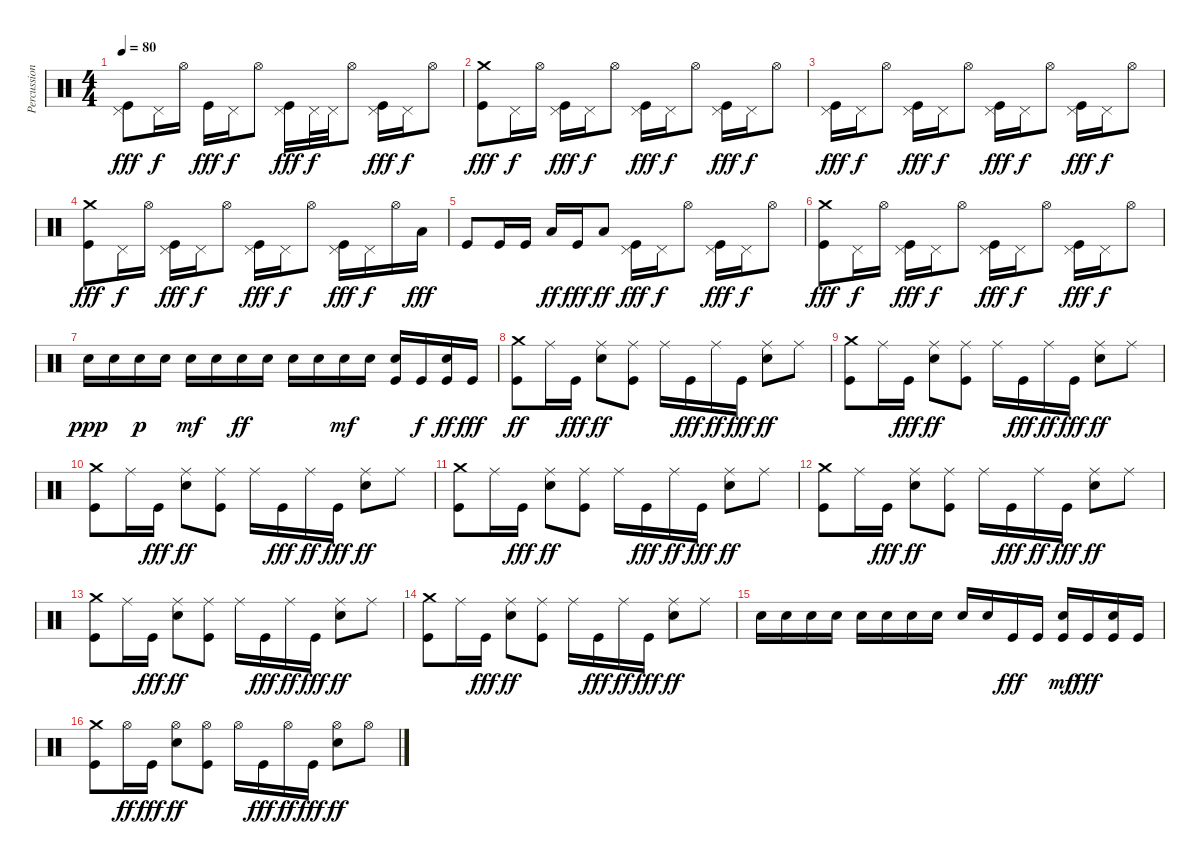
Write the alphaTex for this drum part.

\track ("Percussion" "Percussion") {instrument percussion}
\staff {score}
\articulation defaults
\ts (4 4)
\tempo 80
\clef neutral
\ks c
("Kick (hit)" "Pedal Hi-Hat (hit)").8{dy fff} "Pedal Hi-Hat (hit)".16{dy f} "Hi-Hat (open)".16 "Kick (hit)".16{dy fff} "Pedal Hi-Hat (hit)".16{dy f} "Hi-Hat (open)".8 ("Kick (hit)" "Pedal Hi-Hat (hit)").16{dy fff} "Pedal Hi-Hat (hit)".32{dy f} "Pedal Hi-Hat (hit)".32 "Hi-Hat (open)".8 ("Kick (hit)" "Pedal Hi-Hat (hit)").16{dy fff} "Pedal Hi-Hat (hit)".16{dy f} "Hi-Hat (open)".8 |
("Kick (hit)" "Crash medium (hit)").8{dy fff} "Pedal Hi-Hat (hit)".16{dy f} "Hi-Hat (open)".16 ("Kick (hit)" "Pedal Hi-Hat (hit)").16{dy fff} "Pedal Hi-Hat (hit)".16{dy f} "Hi-Hat (open)".8 ("Kick (hit)" "Pedal Hi-Hat (hit)").16{dy fff} "Pedal Hi-Hat (hit)".16{dy f} "Hi-Hat (open)".8 ("Kick (hit)" "Pedal Hi-Hat (hit)").16{dy fff} "Pedal Hi-Hat (hit)".16{dy f} "Hi-Hat (open)".8 |
("Kick (hit)" "Pedal Hi-Hat (hit)").16{dy fff} "Pedal Hi-Hat (hit)".16{dy f} "Hi-Hat (open)".8 ("Kick (hit)" "Pedal Hi-Hat (hit)").16{dy fff} "Pedal Hi-Hat (hit)".16{dy f} "Hi-Hat (open)".8 ("Kick (hit)" "Pedal Hi-Hat (hit)").16{dy fff} "Pedal Hi-Hat (hit)".16{dy f} "Hi-Hat (open)".8 ("Kick (hit)" "Pedal Hi-Hat (hit)").16{dy fff} "Pedal Hi-Hat (hit)".16{dy f} "Hi-Hat (open)".8 |
("Kick (hit)" "Crash medium (hit)").8{dy fff} "Pedal Hi-Hat (hit)".16{dy f} "Hi-Hat (open)".16 ("Kick (hit)" "Pedal Hi-Hat (hit)").16{dy fff} "Pedal Hi-Hat (hit)".16{dy f} "Hi-Hat (open)".8 ("Kick (hit)" "Pedal Hi-Hat (hit)").16{dy fff} "Pedal Hi-Hat (hit)".16{dy f} "Hi-Hat (open)".8 ("Kick (hit)" "Pedal Hi-Hat (hit)").16{dy fff} "Pedal Hi-Hat (hit)".16{dy f} "Hi-Hat (open)".16 "Low Tom (hit)".16{dy fff} |
"Kick (hit)".8 "Kick (hit)".16 "Kick (hit)".16 "Low Tom (hit)".16{dy ff} "Kick (hit)".16{dy fff} "Low Tom (hit)".8{dy ff} ("Kick (hit)" "Pedal Hi-Hat (hit)").16{dy fff} "Pedal Hi-Hat (hit)".16{dy f} "Hi-Hat (open)".8 ("Kick (hit)" "Pedal Hi-Hat (hit)").16{dy fff} "Pedal Hi-Hat (hit)".16{dy f} "Hi-Hat (open)".8 |
("Kick (hit)" "Crash medium (hit)").8{dy fff} "Pedal Hi-Hat (hit)".16{dy f} "Hi-Hat (open)".16 ("Kick (hit)" "Pedal Hi-Hat (hit)").16{dy fff} "Pedal Hi-Hat (hit)".16{dy f} "Hi-Hat (open)".8 ("Kick (hit)" "Pedal Hi-Hat (hit)").16{dy fff} "Pedal Hi-Hat (hit)".16{dy f} "Hi-Hat (open)".8 ("Kick (hit)" "Pedal Hi-Hat (hit)").16{dy fff} "Pedal Hi-Hat (hit)".16{dy f} "Hi-Hat (open)".8 |
"Snare (hit) 2".16{dy ppp} "Snare (hit) 2".16 "Snare (hit) 2".16{dy p} "Snare (hit) 2".16 "Snare (hit) 2".16{dy mf} "Snare (hit) 2".16 "Snare (hit) 2".16{dy ff} "Snare (hit) 2".16 "Snare (hit) 2".16 "Snare (hit) 2".16 "Snare (hit) 2".16{dy mf} "Snare (hit) 2".16 ("Kick (hit)" "Snare (hit) 2").16 "Kick (hit)".16{dy f} ("Kick (hit)" "Snare (hit) 2").16{dy ff} "Kick (hit)".16{dy fff} |
("Kick (hit)" "Crash medium (hit)").8{dy ff} "Ride (middle)".16 "Kick (hit)".16{dy fff} ("Snare (hit) 2" "Ride (middle)").8{dy ff} ("Kick (hit)" "Ride (middle)").8 "Ride (middle)".16 "Kick (hit)".16{dy fff} "Ride (middle)".16{dy ff} "Kick (hit)".16{dy fff} ("Snare (hit) 2" "Ride (middle)").8{dy ff} "Ride (middle)".8 |
("Kick (hit)" "Crash medium (hit)").8 "Ride (middle)".16 "Kick (hit)".16{dy fff} ("Snare (hit) 2" "Ride (middle)").8{dy ff} ("Kick (hit)" "Ride (middle)").8 "Ride (middle)".16 "Kick (hit)".16{dy fff} "Ride (middle)".16{dy ff} "Kick (hit)".16{dy fff} ("Snare (hit) 2" "Ride (middle)").8{dy ff} "Ride (middle)".8 |
("Kick (hit)" "Crash medium (hit)").8 "Ride (middle)".16 "Kick (hit)".16{dy fff} ("Snare (hit) 2" "Ride (middle)").8{dy ff} ("Kick (hit)" "Ride (middle)").8 "Ride (middle)".16 "Kick (hit)".16{dy fff} "Ride (middle)".16{dy ff} "Kick (hit)".16{dy fff} ("Snare (hit) 2" "Ride (middle)").8{dy ff} "Ride (middle)".8 |
("Kick (hit)" "Crash medium (hit)").8 "Ride (middle)".16 "Kick (hit)".16{dy fff} ("Snare (hit) 2" "Ride (middle)").8{dy ff} ("Kick (hit)" "Ride (middle)").8 "Ride (middle)".16 "Kick (hit)".16{dy fff} "Ride (middle)".16{dy ff} "Kick (hit)".16{dy fff} ("Snare (hit) 2" "Ride (middle)").8{dy ff} "Ride (middle)".8 |
("Kick (hit)" "Crash medium (hit)").8 "Ride (middle)".16 "Kick (hit)".16{dy fff} ("Snare (hit) 2" "Ride (middle)").8{dy ff} ("Kick (hit)" "Ride (middle)").8 "Ride (middle)".16 "Kick (hit)".16{dy fff} "Ride (middle)".16{dy ff} "Kick (hit)".16{dy fff} ("Snare (hit) 2" "Ride (middle)").8{dy ff} "Ride (middle)".8 |
("Kick (hit)" "Crash medium (hit)").8 "Ride (middle)".16 "Kick (hit)".16{dy fff} ("Snare (hit) 2" "Ride (middle)").8{dy ff} ("Kick (hit)" "Ride (middle)").8 "Ride (middle)".16 "Kick (hit)".16{dy fff} "Ride (middle)".16{dy ff} "Kick (hit)".16{dy fff} ("Snare (hit) 2" "Ride (middle)").8{dy ff} "Ride (middle)".8 |
("Kick (hit)" "Crash medium (hit)").8 "Ride (middle)".16 "Kick (hit)".16{dy fff} ("Snare (hit) 2" "Ride (middle)").8{dy ff} ("Kick (hit)" "Ride (middle)").8 "Ride (middle)".16 "Kick (hit)".16{dy fff} "Ride (middle)".16{dy ff} "Kick (hit)".16{dy fff} ("Snare (hit) 2" "Ride (middle)").8{dy ff} "Ride (middle)".8 |
"Snare (hit) 2".16 "Snare (hit) 2".16 "Snare (hit) 2".16 "Snare (hit) 2".16 "Snare (hit) 2".16 "Snare (hit) 2".16 "Snare (hit) 2".16 "Snare (hit) 2".16 "Snare (hit) 2".16 "Snare (hit) 2".16 "Kick (hit)".16{dy fff} "Kick (hit)".16 ("Kick (hit)" "Snare (hit) 2").16{dy mf} "Kick (hit)".16{dy fff} ("Kick (hit)" "Snare (hit) 2").16 "Kick (hit)".16 |
("Kick (hit)" "Crash medium (hit)").8 "Hi-Hat (open)".16{dy ff} "Kick (hit)".16{dy fff} ("Snare (hit) 2" "Hi-Hat (open)").8{dy ff} ("Kick (hit)" "Hi-Hat (open)").8 "Hi-Hat (open)".16 "Kick (hit)".16{dy fff} "Hi-Hat (open)".16{dy ff} "Kick (hit)".16{dy fff} ("Snare (hit) 2" "Hi-Hat (open)").8{dy ff} "Hi-Hat (open)".8
